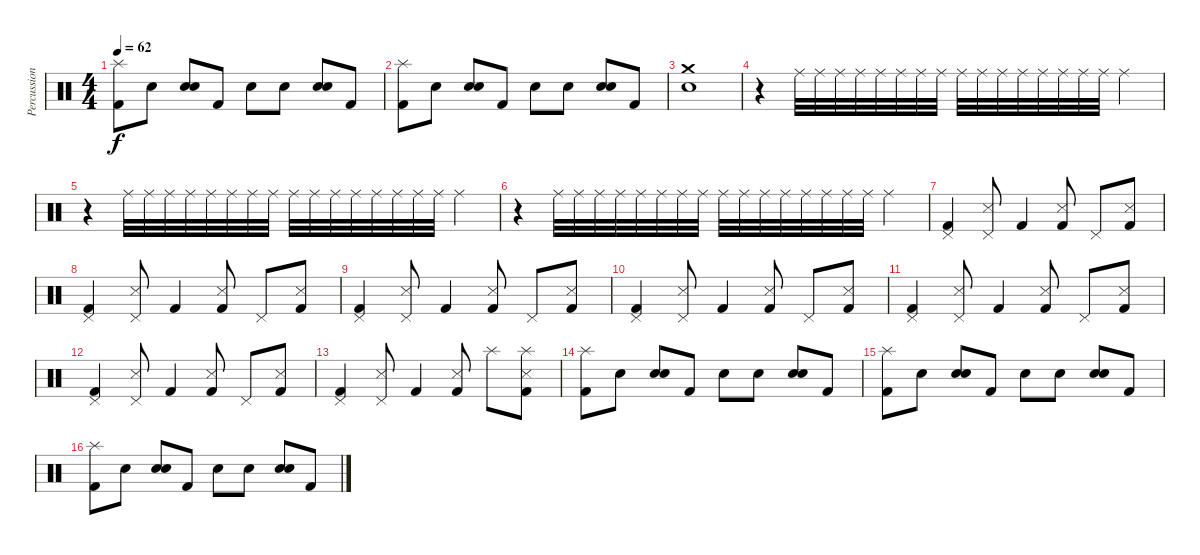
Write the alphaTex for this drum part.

\track ("Percussions" "Percussion") {instrument percussion}
\staff {score}
\articulation defaults
\ts (4 4)
\tempo 62
\clef neutral
\ks c
("Kick (hit) 2" "Splash (hit)").8{dy f} "Electric Snare (hit)".8 ("Snare (hit) 2" "Electric Snare (hit)").8 "Kick (hit) 2".8 "Electric Snare (hit)".8 "Electric Snare (hit)".8 ("Snare (hit) 2" "Electric Snare (hit)").8 "Kick (hit) 2".8 |
("Kick (hit) 2" "Splash (hit)").8 "Electric Snare (hit)".8 ("Snare (hit) 2" "Electric Snare (hit)").8 "Kick (hit) 2".8 "Electric Snare (hit)".8 "Electric Snare (hit)".8 ("Snare (hit) 2" "Electric Snare (hit)").8 "Kick (hit) 2".8 |
("Snare (hit) 2" "Crash medium (hit)").1 |
r.4 "Ride (middle)".32 "Ride (middle)".32 "Ride (middle)".32 "Ride (middle)".32 "Ride (middle)".32 "Ride (middle)".32 "Ride (middle)".32 "Ride (middle)".32 "Ride (middle)".32 "Ride (middle)".32 "Ride (middle)".32 "Ride (middle)".32 "Ride (middle)".32 "Ride (middle)".32 "Ride (middle)".32 "Ride (middle)".32 "Ride (middle)".4 |
r.4 "Ride (middle)".32 "Ride (middle)".32 "Ride (middle)".32 "Ride (middle)".32 "Ride (middle)".32 "Ride (middle)".32 "Ride (middle)".32 "Ride (middle)".32 "Ride (middle)".32 "Ride (middle)".32 "Ride (middle)".32 "Ride (middle)".32 "Ride (middle)".32 "Ride (middle)".32 "Ride (middle)".32 "Ride (middle)".32 "Ride (middle)".4 |
r.4 "Ride (middle)".32 "Ride (middle)".32 "Ride (middle)".32 "Ride (middle)".32 "Ride (middle)".32 "Ride (middle)".32 "Ride (middle)".32 "Ride (middle)".32 "Ride (middle)".32 "Ride (middle)".32 "Ride (middle)".32 "Ride (middle)".32 "Ride (middle)".32 "Ride (middle)".32 "Ride (middle)".32 "Ride (middle)".32 "Ride (middle)".4 |
("Kick (hit) 2" "Pedal Hi-Hat (hit)").4 ("Snare (side stick) 3" "Pedal Hi-Hat (hit)").8 "Kick (hit) 2".4 ("Kick (hit) 2" "Snare (side stick) 3").8 "Pedal Hi-Hat (hit)".8 ("Kick (hit) 2" "Snare (side stick) 3").8 |
("Kick (hit) 2" "Pedal Hi-Hat (hit)").4 ("Snare (side stick) 3" "Pedal Hi-Hat (hit)").8 "Kick (hit) 2".4 ("Kick (hit) 2" "Snare (side stick) 3").8 "Pedal Hi-Hat (hit)".8 ("Kick (hit) 2" "Snare (side stick) 3").8 |
("Kick (hit) 2" "Pedal Hi-Hat (hit)").4 ("Snare (side stick) 3" "Pedal Hi-Hat (hit)").8 "Kick (hit) 2".4 ("Kick (hit) 2" "Snare (side stick) 3").8 "Pedal Hi-Hat (hit)".8 ("Kick (hit) 2" "Snare (side stick) 3").8 |
("Kick (hit) 2" "Pedal Hi-Hat (hit)").4 ("Snare (side stick) 3" "Pedal Hi-Hat (hit)").8 "Kick (hit) 2".4 ("Kick (hit) 2" "Snare (side stick) 3").8 "Pedal Hi-Hat (hit)".8 ("Kick (hit) 2" "Snare (side stick) 3").8 |
("Kick (hit) 2" "Pedal Hi-Hat (hit)").4 ("Snare (side stick) 3" "Pedal Hi-Hat (hit)").8 "Kick (hit) 2".4 ("Kick (hit) 2" "Snare (side stick) 3").8 "Pedal Hi-Hat (hit)".8 ("Kick (hit) 2" "Snare (side stick) 3").8 |
("Kick (hit) 2" "Pedal Hi-Hat (hit)").4 ("Snare (side stick) 3" "Pedal Hi-Hat (hit)").8 "Kick (hit) 2".4 ("Kick (hit) 2" "Snare (side stick) 3").8 "Pedal Hi-Hat (hit)".8 ("Kick (hit) 2" "Snare (side stick) 3").8 |
("Kick (hit) 2" "Pedal Hi-Hat (hit)").4 ("Snare (side stick) 3" "Pedal Hi-Hat (hit)").8 "Kick (hit) 2".4 ("Kick (hit) 2" "Snare (side stick) 3").8 "Splash (hit)".8 ("Kick (hit) 2" "Snare (side stick) 3" "Splash (hit)").8 |
("Kick (hit) 2" "Splash (hit)").8 "Electric Snare (hit)".8 ("Snare (hit) 2" "Electric Snare (hit)").8 "Kick (hit) 2".8 "Electric Snare (hit)".8 "Electric Snare (hit)".8 ("Snare (hit) 2" "Electric Snare (hit)").8 "Kick (hit) 2".8 |
("Kick (hit) 2" "Splash (hit)").8 "Electric Snare (hit)".8 ("Snare (hit) 2" "Electric Snare (hit)").8 "Kick (hit) 2".8 "Electric Snare (hit)".8 "Electric Snare (hit)".8 ("Snare (hit) 2" "Electric Snare (hit)").8 "Kick (hit) 2".8 |
("Kick (hit) 2" "Splash (hit)").8 "Electric Snare (hit)".8 ("Snare (hit) 2" "Electric Snare (hit)").8 "Kick (hit) 2".8 "Electric Snare (hit)".8 "Electric Snare (hit)".8 ("Snare (hit) 2" "Electric Snare (hit)").8 "Kick (hit) 2".8
